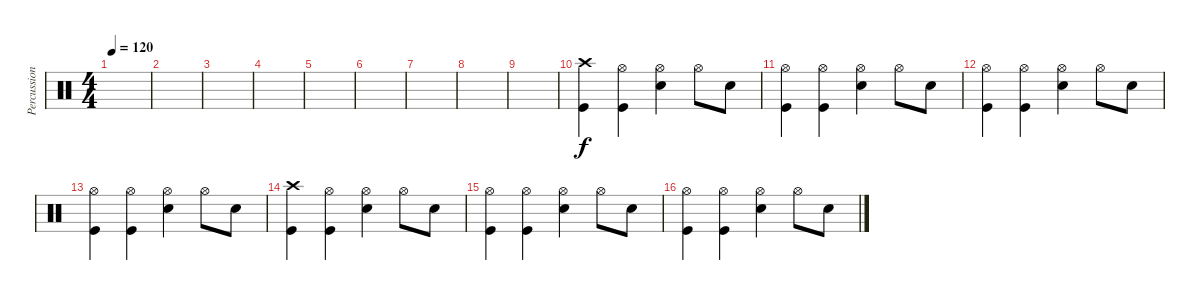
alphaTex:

\track ("Percussions" "Percussion") {instrument percussion}
\staff {score}
\articulation defaults
\ts (4 4)
\tempo 120
\clef neutral
\ks c
|
|
|
|
|
|
|
|
|
("Crash high (hit)" "Kick (hit)").4 ("Hi-Hat (open)" "Kick (hit)").4 ("Hi-Hat (open)" "Snare (hit) 2").4 "Hi-Hat (open)".8 "Snare (hit) 2".8 |
("Hi-Hat (open)" "Kick (hit)").4 ("Hi-Hat (open)" "Kick (hit)").4 ("Hi-Hat (open)" "Snare (hit) 2").4 "Hi-Hat (open)".8 "Snare (hit) 2".8 |
("Hi-Hat (open)" "Kick (hit)").4 ("Hi-Hat (open)" "Kick (hit)").4 ("Hi-Hat (open)" "Snare (hit) 2").4 "Hi-Hat (open)".8 "Snare (hit) 2".8 |
("Hi-Hat (open)" "Kick (hit)").4 ("Hi-Hat (open)" "Kick (hit)").4 ("Hi-Hat (open)" "Snare (hit) 2").4 "Hi-Hat (open)".8 "Snare (hit) 2".8 |
("Crash high (hit)" "Kick (hit)").4 ("Hi-Hat (open)" "Kick (hit)").4 ("Hi-Hat (open)" "Snare (hit) 2").4 "Hi-Hat (open)".8 "Snare (hit) 2".8 |
("Hi-Hat (open)" "Kick (hit)").4 ("Hi-Hat (open)" "Kick (hit)").4 ("Hi-Hat (open)" "Snare (hit) 2").4 "Hi-Hat (open)".8 "Snare (hit) 2".8 |
("Hi-Hat (open)" "Kick (hit)").4 ("Hi-Hat (open)" "Kick (hit)").4 ("Hi-Hat (open)" "Snare (hit) 2").4 "Hi-Hat (open)".8 "Snare (hit) 2".8
